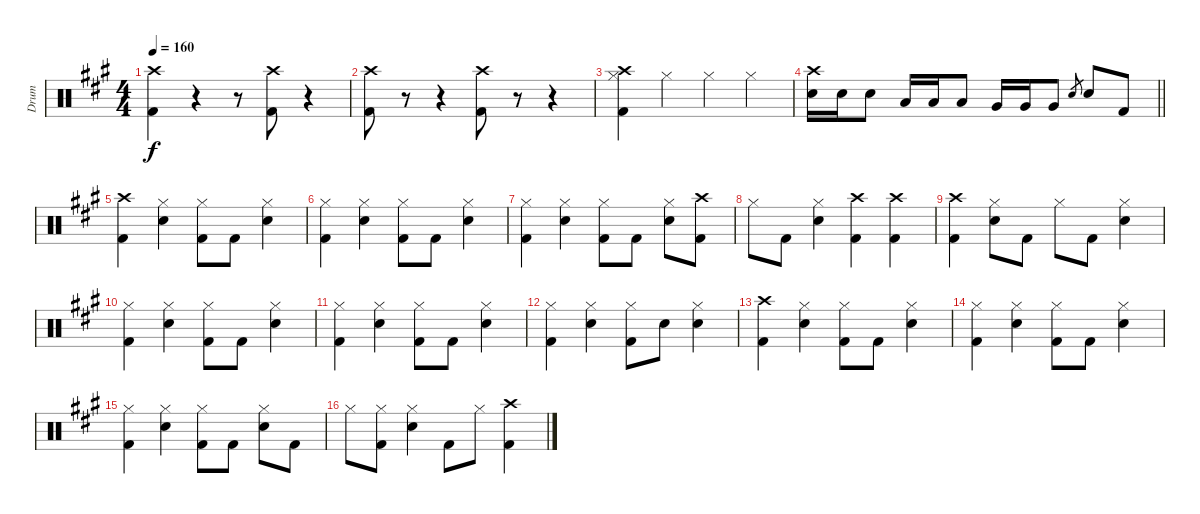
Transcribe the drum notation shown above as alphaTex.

\track ("Drum" "Drum") {instrument percussion}
\staff {score}
\articulation defaults
\ts (4 4)
\tempo 160
\clef neutral
\ks a
("Kick (hit) 2" "Crash high (hit)").4{dy f} r.4 r.8 ("Kick (hit) 2" "Crash high (hit)").8 r.4 |
("Kick (hit) 2" "Crash high (hit)").8 r.8 r.4 ("Kick (hit) 2" "Crash high (hit)").8 r.8 r.4 |
("Hi-Hat (closed)" "Kick (hit) 2" "Crash high (hit)").4 "Hi-Hat (closed)".4 "Hi-Hat (closed)".4 "Hi-Hat (closed)".4 |
\barLineRight lightlight
("Snare (hit) 2" "Crash high (hit)").16 "Snare (hit) 2".16 "Snare (hit) 2".8 "Low Tom (hit)".16 "Low Tom (hit)".16 "Low Tom (hit)".8 "Very Low Tom (hit)".16 "Very Low Tom (hit)".16 "Very Low Tom (hit)".8 "Snare (hit) 2".8{gr} "Snare (hit) 2".8 "Kick (hit) 2".8 |
("Kick (hit) 2" "Crash high (hit)").4 ("Hi-Hat (closed)" "Snare (hit) 2").4 ("Hi-Hat (closed)" "Kick (hit) 2").8 "Kick (hit) 2".8 ("Hi-Hat (closed)" "Snare (hit) 2").4 |
("Hi-Hat (closed)" "Kick (hit) 2").4 ("Hi-Hat (closed)" "Snare (hit) 2").4 ("Hi-Hat (closed)" "Kick (hit) 2").8 "Kick (hit) 2".8 ("Hi-Hat (closed)" "Snare (hit) 2").4 |
("Hi-Hat (closed)" "Kick (hit) 2").4 ("Hi-Hat (closed)" "Snare (hit) 2").4 ("Hi-Hat (closed)" "Kick (hit) 2").8 "Kick (hit) 2".8 ("Hi-Hat (closed)" "Snare (hit) 2").8 ("Kick (hit) 2" "Crash high (hit)").8 |
"Hi-Hat (closed)".8 "Kick (hit) 2".8 ("Hi-Hat (closed)" "Snare (hit) 2").4 ("Kick (hit) 2" "Crash high (hit)").4 ("Kick (hit) 2" "Crash high (hit)").4 |
("Kick (hit) 2" "Crash high (hit)").4 ("Hi-Hat (closed)" "Snare (hit) 2").8 "Kick (hit) 2".8 "Hi-Hat (closed)".8 "Kick (hit) 2".8 ("Hi-Hat (closed)" "Snare (hit) 2").4 |
("Hi-Hat (closed)" "Kick (hit) 2").4 ("Hi-Hat (closed)" "Snare (hit) 2").4 ("Hi-Hat (closed)" "Kick (hit) 2").8 "Kick (hit) 2".8 ("Hi-Hat (closed)" "Snare (hit) 2").4 |
("Hi-Hat (closed)" "Kick (hit) 2").4 ("Hi-Hat (closed)" "Snare (hit) 2").4 ("Hi-Hat (closed)" "Kick (hit) 2").8 "Kick (hit) 2".8 ("Hi-Hat (closed)" "Snare (hit) 2").4 |
("Hi-Hat (closed)" "Kick (hit) 2").4 ("Hi-Hat (closed)" "Snare (hit) 2").4 ("Hi-Hat (closed)" "Kick (hit) 2").8 "Snare (hit) 2".8 ("Hi-Hat (closed)" "Snare (hit) 2").4 |
("Kick (hit) 2" "Crash high (hit)").4 ("Hi-Hat (closed)" "Snare (hit) 2").4 ("Hi-Hat (closed)" "Kick (hit) 2").8 "Kick (hit) 2".8 ("Hi-Hat (closed)" "Snare (hit) 2").4 |
("Hi-Hat (closed)" "Kick (hit) 2").4 ("Hi-Hat (closed)" "Snare (hit) 2").4 ("Hi-Hat (closed)" "Kick (hit) 2").8 "Kick (hit) 2".8 ("Hi-Hat (closed)" "Snare (hit) 2").4 |
("Hi-Hat (closed)" "Kick (hit) 2").4 ("Hi-Hat (closed)" "Snare (hit) 2").4 ("Hi-Hat (closed)" "Kick (hit) 2").8 "Kick (hit) 2".8 ("Hi-Hat (closed)" "Snare (hit) 2").8 "Kick (hit) 2".8 |
"Hi-Hat (closed)".8 ("Hi-Hat (closed)" "Kick (hit) 2").8 ("Hi-Hat (closed)" "Snare (hit) 2").4 "Kick (hit) 2".8 "Hi-Hat (closed)".8 ("Kick (hit) 2" "Crash high (hit)").4
